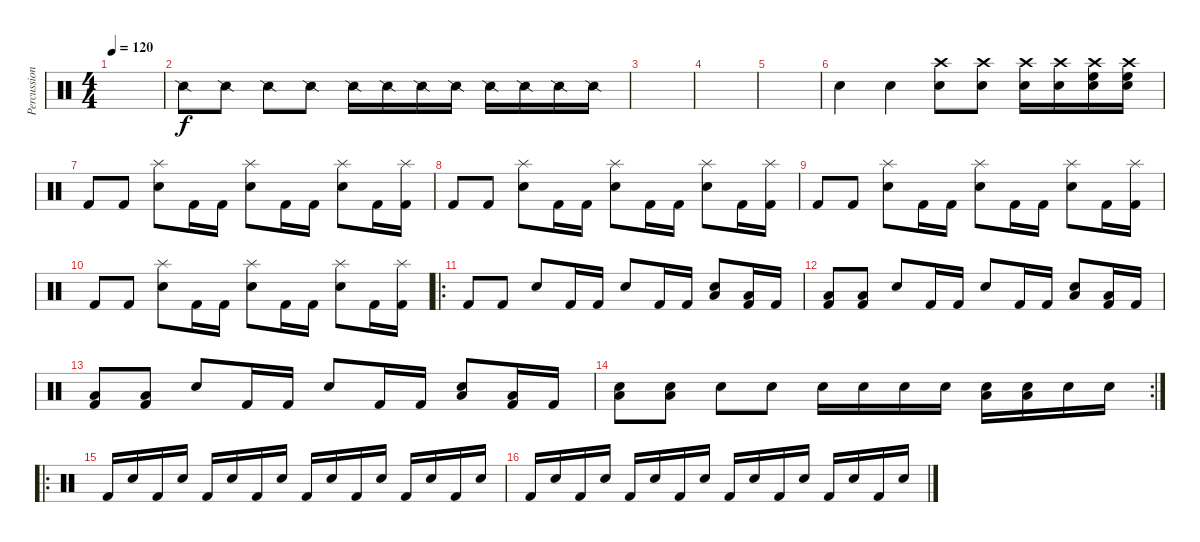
\track ("Percussions" "Percussion") {instrument percussion}
\staff {score}
\articulation defaults
\ts (4 4)
\tempo 120
\clef neutral
\ks c
|
"Snare (side stick) 2".8 "Snare (side stick) 2".8 "Snare (side stick) 2".8 "Snare (side stick) 2".8 "Snare (side stick) 2".16 "Snare (side stick) 2".16 "Snare (side stick) 2".16 "Snare (side stick) 2".16 "Snare (side stick) 2".16 "Snare (side stick) 2".16 "Snare (side stick) 2".16 "Snare (side stick) 2".16 |
|
|
|
"Snare (hit) 2".4 "Snare (hit) 2".4 ("Snare (hit) 2" "Crash high (hit)").8 ("Snare (hit) 2" "Crash high (hit)").8 ("Snare (hit) 2" "Crash high (hit)").16 ("Snare (hit) 2" "Crash high (hit)").16 ("High Floor Tom (hit)" "Snare (hit) 2" "Crash high (hit)").16 ("High Floor Tom (hit)" "Snare (hit) 2" "Crash high (hit)").16 |
"Kick (hit) 2".8 "Kick (hit) 2".8 ("Snare (hit) 2" "Splash (hit)").8 "Kick (hit) 2".16 "Kick (hit) 2".16 ("Snare (hit) 2" "Splash (hit)").8 "Kick (hit) 2".16 "Kick (hit) 2".16 ("Snare (hit) 2" "Splash (hit)").8 "Kick (hit) 2".16 ("Kick (hit) 2" "Splash (hit)").16 |
"Kick (hit) 2".8 "Kick (hit) 2".8 ("Snare (hit) 2" "Splash (hit)").8 "Kick (hit) 2".16 "Kick (hit) 2".16 ("Snare (hit) 2" "Splash (hit)").8 "Kick (hit) 2".16 "Kick (hit) 2".16 ("Snare (hit) 2" "Splash (hit)").8 "Kick (hit) 2".16 ("Kick (hit) 2" "Splash (hit)").16 |
"Kick (hit) 2".8 "Kick (hit) 2".8 ("Snare (hit) 2" "Splash (hit)").8 "Kick (hit) 2".16 "Kick (hit) 2".16 ("Snare (hit) 2" "Splash (hit)").8 "Kick (hit) 2".16 "Kick (hit) 2".16 ("Snare (hit) 2" "Splash (hit)").8 "Kick (hit) 2".16 ("Kick (hit) 2" "Splash (hit)").16 |
"Kick (hit) 2".8 "Kick (hit) 2".8 ("Snare (hit) 2" "Splash (hit)").8 "Kick (hit) 2".16 "Kick (hit) 2".16 ("Snare (hit) 2" "Splash (hit)").8 "Kick (hit) 2".16 "Kick (hit) 2".16 ("Snare (hit) 2" "Splash (hit)").8 "Kick (hit) 2".16 ("Kick (hit) 2" "Splash (hit)").16 |
\ro "Kick (hit) 2".8 "Kick (hit) 2".8 "Snare (hit) 2".8 "Kick (hit) 2".16 "Kick (hit) 2".16 "Snare (hit) 2".8 "Kick (hit) 2".16 "Kick (hit) 2".16
("Snare (hit) 2" "Low Tom (hit)").8 ("Kick (hit) 2" "Low Tom (hit)").16 "Kick (hit) 2".16 |
("Kick (hit) 2" "Low Tom (hit)").8 ("Kick (hit) 2" "Low Tom (hit)").8 "Snare (hit) 2".8 "Kick (hit) 2".16 "Kick (hit) 2".16 "Snare (hit) 2".8 "Kick (hit) 2".16 "Kick (hit) 2".16 ("Snare (hit) 2" "Low Tom (hit)").8 ("Kick (hit) 2" "Low Tom (hit)").16 "Kick (hit) 2".16 |
("Kick (hit) 2" "Low Tom (hit)").8 ("Kick (hit) 2" "Low Tom (hit)").8 "Snare (hit) 2".8 "Kick (hit) 2".16 "Kick (hit) 2".16 "Snare (hit) 2".8 "Kick (hit) 2".16 "Kick (hit) 2".16 ("Snare (hit) 2" "Low Tom (hit)").8 ("Kick (hit) 2" "Low Tom (hit)").16 "Kick (hit) 2".16 |
\rc 2
("Snare (hit) 2" "Low Tom (hit)").8 ("Snare (hit) 2" "Low Tom (hit)").8 "Snare (hit) 2".8 "Snare (hit) 2".8 "Snare (hit) 2".16 "Snare (hit) 2".16 "Snare (hit) 2".16 "Snare (hit) 2".16 ("Snare (hit) 2" "Low Tom (hit)").16 ("Snare (hit) 2" "Low Tom (hit)").16 "Snare (hit) 2".16 "Snare (hit) 2".16 |
\ro "Kick (hit) 2".16 "Snare (hit) 2".16 "Kick (hit) 2".16 "Snare (hit) 2".16 "Kick (hit) 2".16 "Snare (hit) 2".16 "Kick (hit) 2".16 "Snare (hit) 2".16 "Kick (hit) 2".16 "Snare (hit) 2".16 "Kick (hit) 2".16 "Snare (hit) 2".16 "Kick (hit) 2".16 "Snare (hit) 2".16 "Kick (hit) 2".16 "Snare (hit) 2".16
|
"Kick (hit) 2".16 "Snare (hit) 2".16 "Kick (hit) 2".16 "Snare (hit) 2".16 "Kick (hit) 2".16 "Snare (hit) 2".16 "Kick (hit) 2".16 "Snare (hit) 2".16 "Kick (hit) 2".16 "Snare (hit) 2".16 "Kick (hit) 2".16 "Snare (hit) 2".16 "Kick (hit) 2".16 "Snare (hit) 2".16 "Kick (hit) 2".16 "Snare (hit) 2".16
